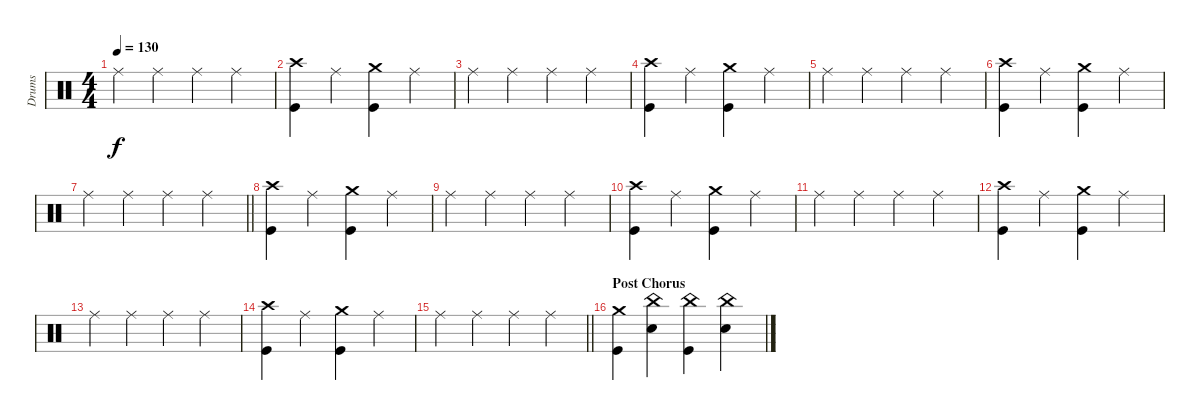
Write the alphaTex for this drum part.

\track ("Drums" "Drums") {instrument percussion}
\staff {score}
\articulation defaults
\ts (4 4)
\tempo 130
\clef neutral
\ks c "Ride (middle)".4{dy f} "Ride (middle)".4{beam merge} "Ride (middle)".4 "Ride (middle)".4
|
("Crash high (hit)" "Kick (hit)").4 "Ride (middle)".4 ("Crash medium (hit)" "Kick (hit)").4 "Ride (middle)".4 |
"Ride (middle)".4 "Ride (middle)".4{beam merge} "Ride (middle)".4 "Ride (middle)".4 |
("Crash high (hit)" "Kick (hit)").4 "Ride (middle)".4 ("Crash medium (hit)" "Kick (hit)").4 "Ride (middle)".4 |
"Ride (middle)".4 "Ride (middle)".4{beam merge} "Ride (middle)".4 "Ride (middle)".4 |
("Crash high (hit)" "Kick (hit)").4 "Ride (middle)".4 ("Crash medium (hit)" "Kick (hit)").4 "Ride (middle)".4 |
\barLineRight lightlight "Ride (middle)".4 "Ride (middle)".4{beam merge} "Ride (middle)".4 "Ride (middle)".4
|
("Crash high (hit)" "Kick (hit)").4 "Ride (middle)".4 ("Crash medium (hit)" "Kick (hit)").4 "Ride (middle)".4 |
"Ride (middle)".4 "Ride (middle)".4{beam merge} "Ride (middle)".4 "Ride (middle)".4 |
("Crash high (hit)" "Kick (hit)").4 "Ride (middle)".4 ("Crash medium (hit)" "Kick (hit)").4 "Ride (middle)".4 |
"Ride (middle)".4 "Ride (middle)".4{beam merge} "Ride (middle)".4 "Ride (middle)".4 |
("Crash high (hit)" "Kick (hit)").4 "Ride (middle)".4 ("Crash medium (hit)" "Kick (hit)").4 "Ride (middle)".4 |
"Ride (middle)".4 "Ride (middle)".4{beam merge} "Ride (middle)".4 "Ride (middle)".4 |
("Crash high (hit)" "Kick (hit)").4 "Ride (middle)".4 ("Crash medium (hit)" "Kick (hit)").4 "Ride (middle)".4 |
\barLineRight lightlight "Ride (middle)".4 "Ride (middle)".4{beam merge} "Ride (middle)".4 "Ride (middle)".4
|
\section ("" "Post Chorus")
("Crash medium (hit)" "Kick (hit)").4{beam merge} ("China (hit)" "Snare (hit) 2").4{beam merge} ("China (hit)" "Kick (hit)").4{beam merge} ("China (hit)" "Snare (hit) 2").4
